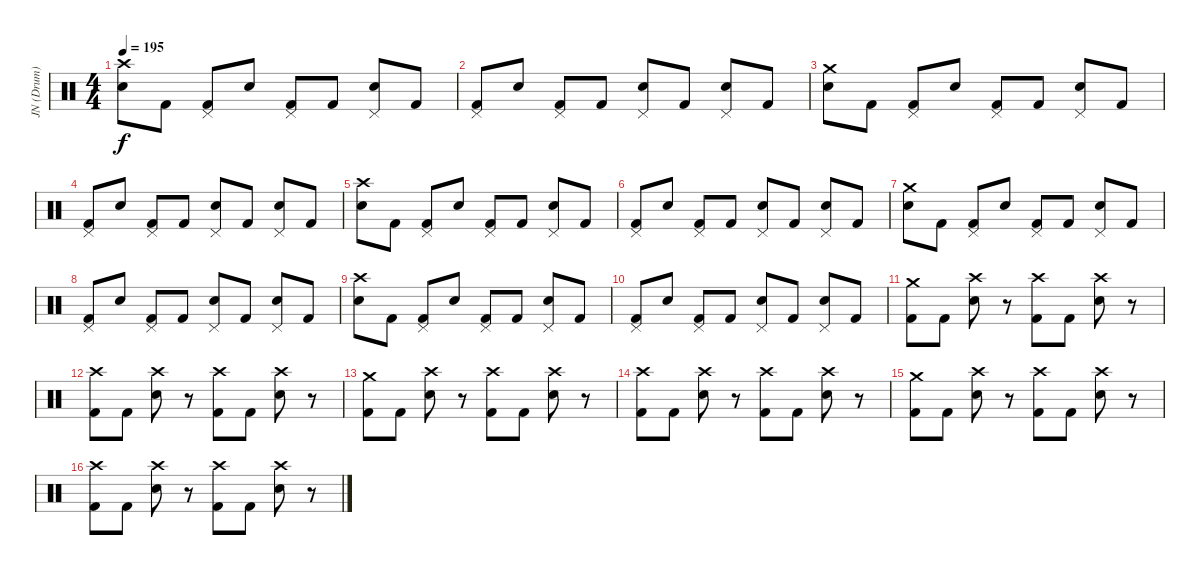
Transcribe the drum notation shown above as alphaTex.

\track ("JN (Drum)" "JN (Drum)") {instrument percussion}
\staff {score}
\articulation defaults
\ts (4 4)
\tempo 195
\clef neutral
\ks c
("Crash high (hit)" "Electric Snare (hit)").8{dy f} "Kick (hit) 2".8 ("Pedal Hi-Hat (hit)" "Kick (hit) 2").8 "Electric Snare (hit)".8 ("Pedal Hi-Hat (hit)" "Kick (hit) 2").8 "Kick (hit) 2".8 ("Pedal Hi-Hat (hit)" "Electric Snare (hit)").8 "Kick (hit) 2".8 |
("Pedal Hi-Hat (hit)" "Kick (hit) 2").8 "Electric Snare (hit)".8 ("Pedal Hi-Hat (hit)" "Kick (hit) 2").8 "Kick (hit) 2".8 ("Pedal Hi-Hat (hit)" "Electric Snare (hit)").8 "Kick (hit) 2".8 ("Pedal Hi-Hat (hit)" "Electric Snare (hit)").8 "Kick (hit) 2".8 |
("Crash medium (hit)" "Electric Snare (hit)").8 "Kick (hit) 2".8 ("Pedal Hi-Hat (hit)" "Kick (hit) 2").8 "Electric Snare (hit)".8 ("Pedal Hi-Hat (hit)" "Kick (hit) 2").8 "Kick (hit) 2".8 ("Pedal Hi-Hat (hit)" "Electric Snare (hit)").8 "Kick (hit) 2".8 |
("Pedal Hi-Hat (hit)" "Kick (hit) 2").8 "Electric Snare (hit)".8 ("Pedal Hi-Hat (hit)" "Kick (hit) 2").8 "Kick (hit) 2".8 ("Pedal Hi-Hat (hit)" "Electric Snare (hit)").8 "Kick (hit) 2".8 ("Pedal Hi-Hat (hit)" "Electric Snare (hit)").8 "Kick (hit) 2".8 |
("Crash high (hit)" "Electric Snare (hit)").8 "Kick (hit) 2".8 ("Pedal Hi-Hat (hit)" "Kick (hit) 2").8 "Electric Snare (hit)".8 ("Pedal Hi-Hat (hit)" "Kick (hit) 2").8 "Kick (hit) 2".8 ("Pedal Hi-Hat (hit)" "Electric Snare (hit)").8 "Kick (hit) 2".8 |
("Pedal Hi-Hat (hit)" "Kick (hit) 2").8 "Electric Snare (hit)".8 ("Pedal Hi-Hat (hit)" "Kick (hit) 2").8 "Kick (hit) 2".8 ("Pedal Hi-Hat (hit)" "Electric Snare (hit)").8 "Kick (hit) 2".8 ("Pedal Hi-Hat (hit)" "Electric Snare (hit)").8 "Kick (hit) 2".8 |
("Crash medium (hit)" "Electric Snare (hit)").8 "Kick (hit) 2".8 ("Pedal Hi-Hat (hit)" "Kick (hit) 2").8 "Electric Snare (hit)".8 ("Pedal Hi-Hat (hit)" "Kick (hit) 2").8 "Kick (hit) 2".8 ("Pedal Hi-Hat (hit)" "Electric Snare (hit)").8 "Kick (hit) 2".8 |
("Pedal Hi-Hat (hit)" "Kick (hit) 2").8 "Electric Snare (hit)".8 ("Pedal Hi-Hat (hit)" "Kick (hit) 2").8 "Kick (hit) 2".8 ("Pedal Hi-Hat (hit)" "Electric Snare (hit)").8 "Kick (hit) 2".8 ("Pedal Hi-Hat (hit)" "Electric Snare (hit)").8 "Kick (hit) 2".8 |
("Crash high (hit)" "Electric Snare (hit)").8 "Kick (hit) 2".8 ("Pedal Hi-Hat (hit)" "Kick (hit) 2").8 "Electric Snare (hit)".8 ("Pedal Hi-Hat (hit)" "Kick (hit) 2").8 "Kick (hit) 2".8 ("Pedal Hi-Hat (hit)" "Electric Snare (hit)").8 "Kick (hit) 2".8 |
("Pedal Hi-Hat (hit)" "Kick (hit) 2").8 "Electric Snare (hit)".8 ("Pedal Hi-Hat (hit)" "Kick (hit) 2").8 "Kick (hit) 2".8 ("Pedal Hi-Hat (hit)" "Electric Snare (hit)").8 "Kick (hit) 2".8 ("Pedal Hi-Hat (hit)" "Electric Snare (hit)").8 "Kick (hit) 2".8 |
("Crash medium (hit)" "Kick (hit) 2").8 "Kick (hit) 2".8 ("Crash high (hit)" "Electric Snare (hit)").8 r.8 ("Crash high (hit)" "Kick (hit) 2").8 "Kick (hit) 2".8 ("Crash high (hit)" "Electric Snare (hit)").8 r.8 |
("Crash high (hit)" "Kick (hit) 2").8 "Kick (hit) 2".8 ("Crash high (hit)" "Electric Snare (hit)").8 r.8 ("Crash high (hit)" "Kick (hit) 2").8 "Kick (hit) 2".8 ("Crash high (hit)" "Electric Snare (hit)").8 r.8 |
("Crash medium (hit)" "Kick (hit) 2").8 "Kick (hit) 2".8 ("Crash high (hit)" "Electric Snare (hit)").8 r.8 ("Crash high (hit)" "Kick (hit) 2").8 "Kick (hit) 2".8 ("Crash high (hit)" "Electric Snare (hit)").8 r.8 |
("Crash high (hit)" "Kick (hit) 2").8 "Kick (hit) 2".8 ("Crash high (hit)" "Electric Snare (hit)").8 r.8 ("Crash high (hit)" "Kick (hit) 2").8 "Kick (hit) 2".8 ("Crash high (hit)" "Electric Snare (hit)").8 r.8 |
("Crash medium (hit)" "Kick (hit) 2").8 "Kick (hit) 2".8 ("Crash high (hit)" "Electric Snare (hit)").8 r.8 ("Crash high (hit)" "Kick (hit) 2").8 "Kick (hit) 2".8 ("Crash high (hit)" "Electric Snare (hit)").8 r.8 |
("Crash high (hit)" "Kick (hit) 2").8 "Kick (hit) 2".8 ("Crash high (hit)" "Electric Snare (hit)").8 r.8 ("Crash high (hit)" "Kick (hit) 2").8 "Kick (hit) 2".8 ("Crash high (hit)" "Electric Snare (hit)").8 r.8
